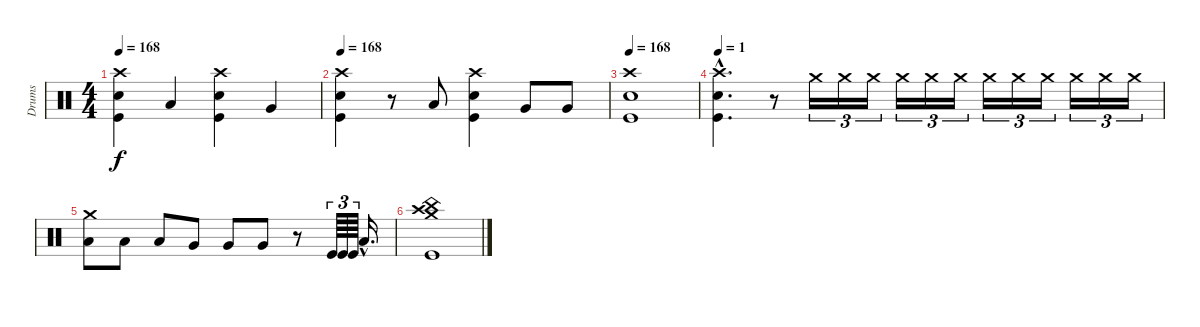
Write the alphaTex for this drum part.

\track ("Drums" "Drums") {instrument percussion}
\staff {score}
\articulation defaults
\ts (4 4)
\tempo 168
\clef neutral
\ks c
("Crash high (hit)" "Snare (hit) 2" "Kick (hit)").4{dy f} "Low Tom (hit)".4 ("Crash high (hit)" "Snare (hit) 2" "Kick (hit)").4 "Very Low Tom (hit)".4 |
\tempo 168
("Crash high (hit)" "Snare (hit) 2" "Kick (hit)").4 r.8 "Low Tom (hit)".8 ("Crash high (hit)" "Snare (hit) 2" "Kick (hit)").4 "Very Low Tom (hit)".8 "Very Low Tom (hit)".8 |
\tempo 168
("Crash high (hit)" "Snare (hit) 2" "Kick (hit)").1 |
\tempo 1
("Crash high (hit)"{hac} "Snare (hit) 2"{hac} "Kick (hit)"{hac}).4{d} r.8{volume 0} "Crash medium (hit)".16{tu (3 2) volume 13} "Crash medium (hit)".16{tu (3 2)} "Crash medium (hit)".16{tu (3 2)} "Crash medium (hit)".16{tu (3 2)} "Crash medium (hit)".16{tu (3 2)} "Crash medium (hit)".16{tu (3 2)} "Crash medium (hit)".16{tu (3 2)} "Crash medium (hit)".16{tu (3 2)} "Crash medium (hit)".16{tu (3 2)} "Crash medium (hit)".16{tu (3 2)} "Crash medium (hit)".16{tu (3 2)} "Crash medium (hit)".16{tu (3 2)} |
("Low Tom (hit)" "Crash medium (hit)").8 "Low Tom (hit)".8 "Low Tom (hit)".8 "Very Low Tom (hit)".8 "Very Low Tom (hit)".8 "Very Low Tom (hit)".8 r.8 "Kick (hit)".64{tu (3 2)} "Kick (hit)".64{tu (3 2)} "Kick (hit)".64{tu (3 2)} "Low Tom (hit)"{hac}.16{d} |
("China (hit)" "Crash medium (hit)" "Crash high (hit)" "Kick (hit)").1{volume 0}
